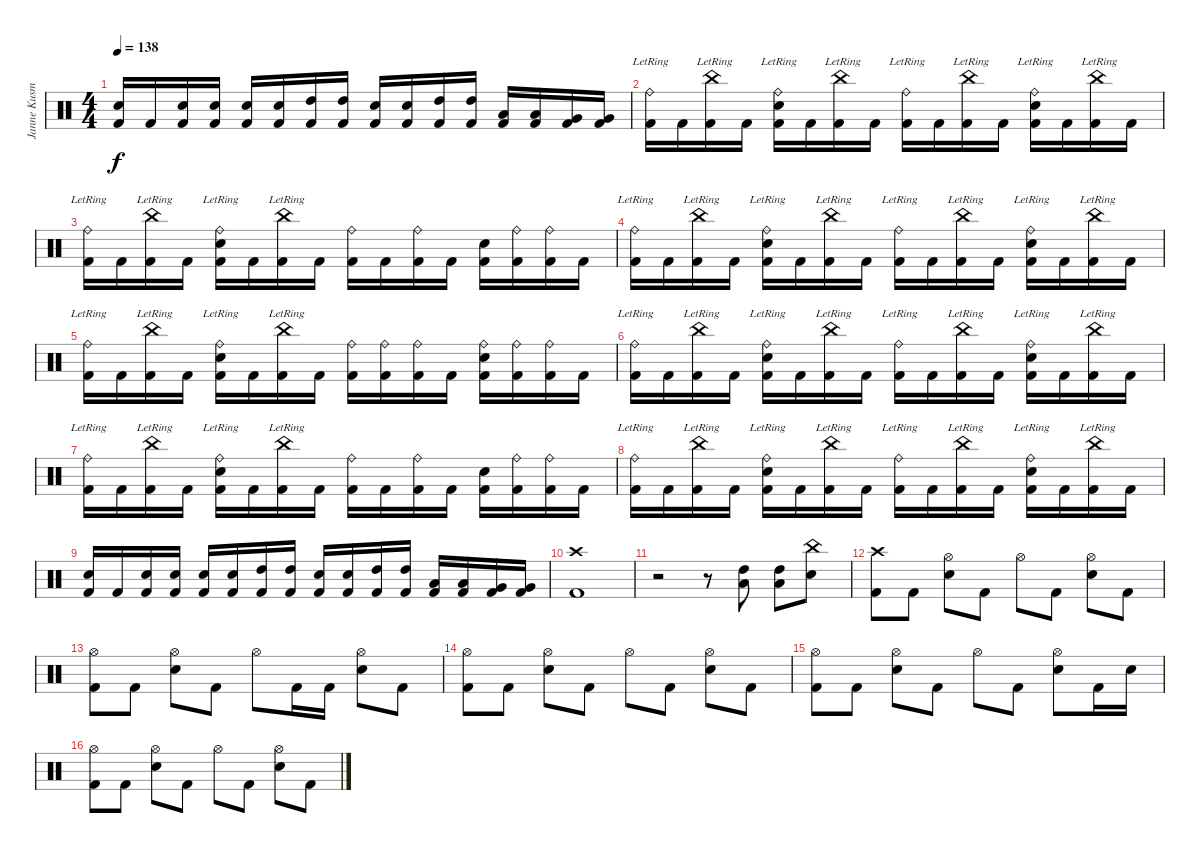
\track ("Janne Kusmin" "Janne Kusm") {instrument percussion}
\staff {score}
\articulation defaults
\ts (4 4)
\tempo 138
\clef neutral
\ks c
("Electric Snare (hit)" "Kick (hit) 2").16{dy f} "Kick (hit) 2".16 ("Electric Snare (hit)" "Kick (hit) 2").16 ("Electric Snare (hit)" "Kick (hit) 2").16 ("Electric Snare (hit)" "Kick (hit) 2").16 ("Electric Snare (hit)" "Kick (hit) 2").16 ("High Tom (hit)" "Kick (hit) 2").16 ("High Tom (hit)" "Kick (hit) 2").16 ("Electric Snare (hit)" "Kick (hit) 2").16 ("Electric Snare (hit)" "Kick (hit) 2").16 ("High Tom (hit)" "Kick (hit) 2").16 ("High Tom (hit)" "Kick (hit) 2").16 ("Low Tom (hit)" "Kick (hit) 2").16 ("Low Tom (hit)" "Kick (hit) 2").16 ("Very Low Tom (hit)" "Kick (hit) 2").16 ("Very Low Tom (hit)" "Kick (hit) 2").16 |
("Ride (bell)"{lr} "Kick (hit) 2").16 "Kick (hit) 2".16 ("China (hit)"{lr} "Kick (hit) 2").16 "Kick (hit) 2".16 ("Ride (bell)"{lr} "Electric Snare (hit)" "Kick (hit) 2").16 "Kick (hit) 2".16 ("China (hit)"{lr} "Kick (hit) 2").16 "Kick (hit) 2".16 ("Ride (bell)"{lr} "Kick (hit) 2").16 "Kick (hit) 2".16 ("China (hit)"{lr} "Kick (hit) 2").16 "Kick (hit) 2".16 ("Ride (bell)"{lr} "Electric Snare (hit)" "Kick (hit) 2").16 "Kick (hit) 2".16 ("China (hit)"{lr} "Kick (hit) 2").16 "Kick (hit) 2".16 |
("Ride (bell)"{lr} "Kick (hit) 2").16 "Kick (hit) 2".16 ("China (hit)"{lr} "Kick (hit) 2").16 "Kick (hit) 2".16 ("Ride (bell)"{lr} "Electric Snare (hit)" "Kick (hit) 2").16 "Kick (hit) 2".16 ("China (hit)"{lr} "Kick (hit) 2").16 "Kick (hit) 2".16 ("Ride (bell)" "Kick (hit) 2").16 "Kick (hit) 2".16 ("Ride (bell)" "Kick (hit) 2").16 "Kick (hit) 2".16 ("Electric Snare (hit)" "Kick (hit) 2").16 ("Ride (bell)" "Kick (hit) 2").16 ("Ride (bell)" "Kick (hit) 2").16 "Kick (hit) 2".16 |
("Ride (bell)"{lr} "Kick (hit) 2").16 "Kick (hit) 2".16 ("China (hit)"{lr} "Kick (hit) 2").16 "Kick (hit) 2".16 ("Ride (bell)"{lr} "Electric Snare (hit)" "Kick (hit) 2").16 "Kick (hit) 2".16 ("China (hit)"{lr} "Kick (hit) 2").16 "Kick (hit) 2".16 ("Ride (bell)"{lr} "Kick (hit) 2").16 "Kick (hit) 2".16 ("China (hit)"{lr} "Kick (hit) 2").16 "Kick (hit) 2".16 ("Ride (bell)"{lr} "Electric Snare (hit)" "Kick (hit) 2").16 "Kick (hit) 2".16 ("China (hit)"{lr} "Kick (hit) 2").16 "Kick (hit) 2".16 |
("Ride (bell)"{lr} "Kick (hit) 2").16 "Kick (hit) 2".16 ("China (hit)"{lr} "Kick (hit) 2").16 "Kick (hit) 2".16 ("Ride (bell)"{lr} "Electric Snare (hit)" "Kick (hit) 2").16 "Kick (hit) 2".16 ("China (hit)"{lr} "Kick (hit) 2").16 "Kick (hit) 2".16 ("Ride (bell)" "Kick (hit) 2").16 ("Ride (bell)" "Kick (hit) 2").16 ("Ride (bell)" "Kick (hit) 2").16 "Kick (hit) 2".16 ("Ride (bell)" "Electric Snare (hit)" "Kick (hit) 2").16 ("Ride (bell)" "Kick (hit) 2").16 ("Ride (bell)" "Kick (hit) 2").16 "Kick (hit) 2".16 |
("Ride (bell)"{lr} "Kick (hit) 2").16 "Kick (hit) 2".16 ("China (hit)"{lr} "Kick (hit) 2").16 "Kick (hit) 2".16 ("Ride (bell)"{lr} "Electric Snare (hit)" "Kick (hit) 2").16 "Kick (hit) 2".16 ("China (hit)"{lr} "Kick (hit) 2").16 "Kick (hit) 2".16 ("Ride (bell)"{lr} "Kick (hit) 2").16 "Kick (hit) 2".16 ("China (hit)"{lr} "Kick (hit) 2").16 "Kick (hit) 2".16 ("Ride (bell)"{lr} "Electric Snare (hit)" "Kick (hit) 2").16 "Kick (hit) 2".16 ("China (hit)"{lr} "Kick (hit) 2").16 "Kick (hit) 2".16 |
("Ride (bell)"{lr} "Kick (hit) 2").16 "Kick (hit) 2".16 ("China (hit)"{lr} "Kick (hit) 2").16 "Kick (hit) 2".16 ("Ride (bell)"{lr} "Electric Snare (hit)" "Kick (hit) 2").16 "Kick (hit) 2".16 ("China (hit)"{lr} "Kick (hit) 2").16 "Kick (hit) 2".16 ("Ride (bell)" "Kick (hit) 2").16 "Kick (hit) 2".16 ("Ride (bell)" "Kick (hit) 2").16 "Kick (hit) 2".16 ("Electric Snare (hit)" "Kick (hit) 2").16 ("Ride (bell)" "Kick (hit) 2").16 ("Ride (bell)" "Kick (hit) 2").16 "Kick (hit) 2".16 |
("Ride (bell)"{lr} "Kick (hit) 2").16 "Kick (hit) 2".16 ("China (hit)"{lr} "Kick (hit) 2").16 "Kick (hit) 2".16 ("Ride (bell)"{lr} "Electric Snare (hit)" "Kick (hit) 2").16 "Kick (hit) 2".16 ("China (hit)"{lr} "Kick (hit) 2").16 "Kick (hit) 2".16 ("Ride (bell)"{lr} "Kick (hit) 2").16 "Kick (hit) 2".16 ("China (hit)"{lr} "Kick (hit) 2").16 "Kick (hit) 2".16 ("Ride (bell)"{lr} "Electric Snare (hit)" "Kick (hit) 2").16 "Kick (hit) 2".16 ("China (hit)"{lr} "Kick (hit) 2").16 "Kick (hit) 2".16 |
("Electric Snare (hit)" "Kick (hit) 2").16 "Kick (hit) 2".16 ("Electric Snare (hit)" "Kick (hit) 2").16 ("Electric Snare (hit)" "Kick (hit) 2").16 ("Electric Snare (hit)" "Kick (hit) 2").16 ("Electric Snare (hit)" "Kick (hit) 2").16 ("High Tom (hit)" "Kick (hit) 2").16 ("High Tom (hit)" "Kick (hit) 2").16 ("Electric Snare (hit)" "Kick (hit) 2").16 ("Electric Snare (hit)" "Kick (hit) 2").16 ("High Tom (hit)" "Kick (hit) 2").16 ("High Tom (hit)" "Kick (hit) 2").16 ("Low Tom (hit)" "Kick (hit) 2").16 ("Low Tom (hit)" "Kick (hit) 2").16 ("Very Low Tom (hit)" "Kick (hit) 2").16 ("Very Low Tom (hit)" "Kick (hit) 2").16 |
("Crash high (hit)" "Kick (hit) 2").1 |
r.2 r.8 ("High Tom (hit)" "Low Floor Tom (hit)").8 ("High Tom (hit)" "Low Floor Tom (hit)").8 ("China (hit)" "Electric Snare (hit)").8 |
("Crash high (hit)" "Kick (hit) 2").8 "Kick (hit) 2".8 ("Hi-Hat (open)" "Electric Snare (hit)").8 "Kick (hit) 2".8 "Hi-Hat (open)".8 "Kick (hit) 2".8 ("Hi-Hat (open)" "Electric Snare (hit)").8 "Kick (hit) 2".8 |
("Hi-Hat (open)" "Kick (hit) 2").8 "Kick (hit) 2".8 ("Hi-Hat (open)" "Electric Snare (hit)").8 "Kick (hit) 2".8 "Hi-Hat (open)".8 "Kick (hit) 2".16 "Kick (hit) 2".16 ("Hi-Hat (open)" "Electric Snare (hit)").8 "Kick (hit) 2".8 |
("Hi-Hat (open)" "Kick (hit) 2").8 "Kick (hit) 2".8 ("Hi-Hat (open)" "Electric Snare (hit)").8 "Kick (hit) 2".8 "Hi-Hat (open)".8 "Kick (hit) 2".8 ("Hi-Hat (open)" "Electric Snare (hit)").8 "Kick (hit) 2".8 |
("Hi-Hat (open)" "Kick (hit) 2").8 "Kick (hit) 2".8 ("Hi-Hat (open)" "Electric Snare (hit)").8 "Kick (hit) 2".8 "Hi-Hat (open)".8 "Kick (hit) 2".8 ("Hi-Hat (open)" "Electric Snare (hit)").8 "Kick (hit) 2".16 "Electric Snare (hit)".16 |
("Hi-Hat (open)" "Kick (hit) 2").8 "Kick (hit) 2".8 ("Hi-Hat (open)" "Electric Snare (hit)").8 "Kick (hit) 2".8 "Hi-Hat (open)".8 "Kick (hit) 2".8 ("Hi-Hat (open)" "Electric Snare (hit)").8 "Kick (hit) 2".8
